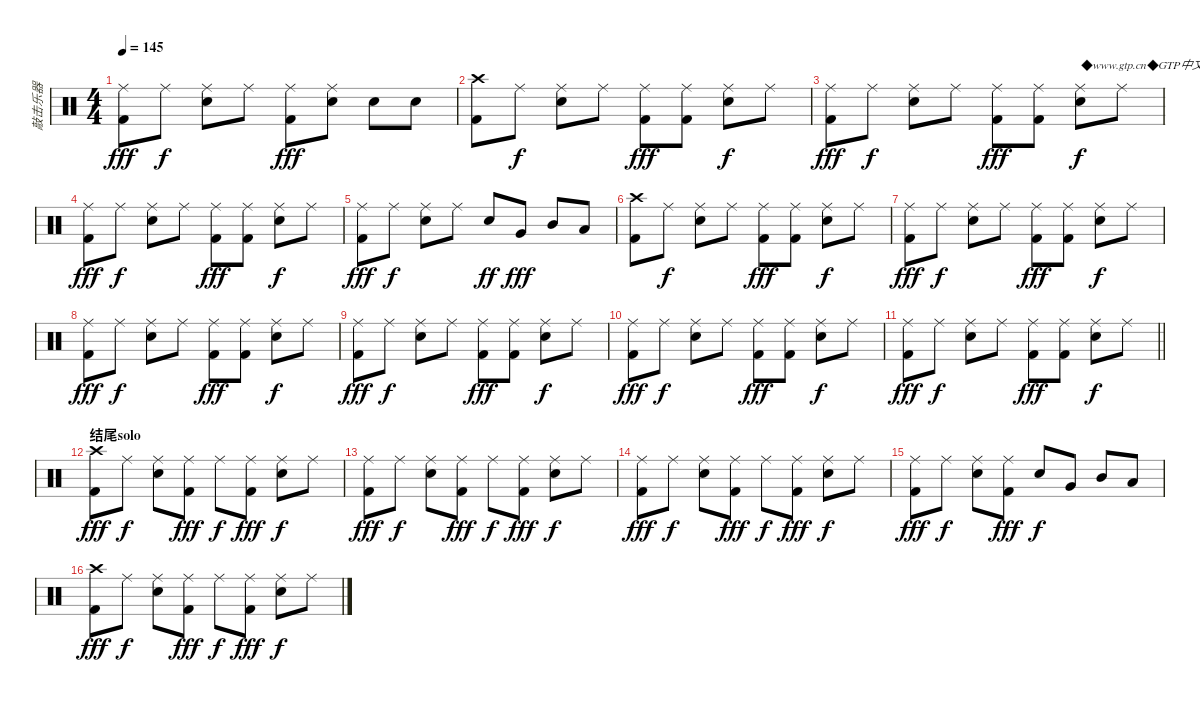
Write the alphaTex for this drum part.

\track ("敲击乐器" "敲击乐器") {instrument percussion}
\staff {score}
\articulation defaults
\ts (4 4)
\tempo 145
\clef neutral
\ks c
("Ride (middle)" "Kick (hit) 2").8{dy fff} "Ride (middle)".8{dy f} ("Ride (middle)" "Electric Snare (hit)").8 "Ride (middle)".8 ("Ride (middle)" "Kick (hit) 2").8{dy fff} ("Ride (middle)" "Electric Snare (hit)").8 "Electric Snare (hit)".8 "Electric Snare (hit)".8 |
("Crash high (hit)" "Kick (hit) 2").8 "Ride (middle)".8{dy f} ("Ride (middle)" "Electric Snare (hit)").8 "Ride (middle)".8 ("Ride (middle)" "Kick (hit) 2").8{dy fff} ("Ride (middle)" "Kick (hit) 2").8 ("Ride (middle)" "Electric Snare (hit)").8{dy f} "Ride (middle)".8 |
("Ride (middle)" "Kick (hit) 2").8{dy fff} "Ride (middle)".8{dy f} ("Ride (middle)" "Electric Snare (hit)").8 "Ride (middle)".8 ("Ride (middle)" "Kick (hit) 2").8{dy fff} ("Ride (middle)" "Kick (hit) 2").8 ("Ride (middle)" "Electric Snare (hit)").8{txt "◆www.gtp.cn◆GTP中文网为您提供优秀的GTP！" dy f} "Ride (middle)".8 |
("Ride (middle)" "Kick (hit) 2").8{dy fff} "Ride (middle)".8{dy f} ("Ride (middle)" "Electric Snare (hit)").8 "Ride (middle)".8 ("Ride (middle)" "Kick (hit) 2").8{dy fff} ("Ride (middle)" "Kick (hit) 2").8 ("Ride (middle)" "Electric Snare (hit)").8{dy f} "Ride (middle)".8 |
("Ride (middle)" "Kick (hit) 2").8{dy fff} "Ride (middle)".8{dy f} ("Ride (middle)" "Electric Snare (hit)").8 "Ride (middle)".8 "Electric Snare (hit)".8{dy ff} "Very Low Tom (hit)".8{dy fff} "Mid Tom (hit)".8 "Low Tom (hit)".8 |
("Crash high (hit)" "Kick (hit) 2").8 "Ride (middle)".8{dy f} ("Ride (middle)" "Electric Snare (hit)").8 "Ride (middle)".8 ("Ride (middle)" "Kick (hit) 2").8{dy fff} ("Ride (middle)" "Kick (hit) 2").8 ("Ride (middle)" "Electric Snare (hit)").8{dy f} "Ride (middle)".8 |
("Ride (middle)" "Kick (hit) 2").8{dy fff} "Ride (middle)".8{dy f} ("Ride (middle)" "Electric Snare (hit)").8 "Ride (middle)".8 ("Ride (middle)" "Kick (hit) 2").8{dy fff} ("Ride (middle)" "Kick (hit) 2").8 ("Ride (middle)" "Electric Snare (hit)").8{dy f} "Ride (middle)".8 |
("Ride (middle)" "Kick (hit) 2").8{dy fff} "Ride (middle)".8{dy f} ("Ride (middle)" "Electric Snare (hit)").8 "Ride (middle)".8 ("Ride (middle)" "Kick (hit) 2").8{dy fff} ("Ride (middle)" "Kick (hit) 2").8 ("Ride (middle)" "Electric Snare (hit)").8{dy f} "Ride (middle)".8 |
("Ride (middle)" "Kick (hit) 2").8{dy fff} "Ride (middle)".8{dy f} ("Ride (middle)" "Electric Snare (hit)").8 "Ride (middle)".8 ("Ride (middle)" "Kick (hit) 2").8{dy fff} ("Ride (middle)" "Kick (hit) 2").8 ("Ride (middle)" "Electric Snare (hit)").8{dy f} "Ride (middle)".8 |
("Ride (middle)" "Kick (hit) 2").8{dy fff} "Ride (middle)".8{dy f} ("Ride (middle)" "Electric Snare (hit)").8 "Ride (middle)".8 ("Ride (middle)" "Kick (hit) 2").8{dy fff} ("Ride (middle)" "Kick (hit) 2").8 ("Ride (middle)" "Electric Snare (hit)").8{dy f} "Ride (middle)".8 |
\barLineRight lightlight
("Ride (middle)" "Kick (hit) 2").8{dy fff} "Ride (middle)".8{dy f} ("Ride (middle)" "Electric Snare (hit)").8 "Ride (middle)".8 ("Ride (middle)" "Kick (hit) 2").8{dy fff} ("Ride (middle)" "Kick (hit) 2").8 ("Ride (middle)" "Electric Snare (hit)").8{dy f} "Ride (middle)".8 |
\section ("" "结尾solo")
("Crash high (hit)" "Kick (hit) 2").8{dy fff} "Ride (middle)".8{dy f} ("Ride (middle)" "Electric Snare (hit)").8 ("Ride (middle)" "Kick (hit) 2").8{dy fff} "Ride (middle)".8{dy f} ("Ride (middle)" "Kick (hit) 2").8{dy fff} ("Ride (middle)" "Electric Snare (hit)").8{dy f} "Ride (middle)".8 |
("Ride (middle)" "Kick (hit) 2").8{dy fff} "Ride (middle)".8{dy f} ("Ride (middle)" "Electric Snare (hit)").8 ("Ride (middle)" "Kick (hit) 2").8{dy fff} "Ride (middle)".8{dy f} ("Ride (middle)" "Kick (hit) 2").8{dy fff} ("Ride (middle)" "Electric Snare (hit)").8{dy f} "Ride (middle)".8 |
("Ride (middle)" "Kick (hit) 2").8{dy fff} "Ride (middle)".8{dy f} ("Ride (middle)" "Electric Snare (hit)").8 ("Ride (middle)" "Kick (hit) 2").8{dy fff} "Ride (middle)".8{dy f} ("Ride (middle)" "Kick (hit) 2").8{dy fff} ("Ride (middle)" "Electric Snare (hit)").8{dy f} "Ride (middle)".8 |
("Ride (middle)" "Kick (hit) 2").8{dy fff} "Ride (middle)".8{dy f} ("Ride (middle)" "Electric Snare (hit)").8 ("Ride (middle)" "Kick (hit) 2").8{dy fff} "Electric Snare (hit)".8{dy f} "Very Low Tom (hit)".8 "Mid Tom (hit)".8 "Low Tom (hit)".8 |
("Crash high (hit)" "Kick (hit) 2").8{dy fff} "Ride (middle)".8{dy f} ("Ride (middle)" "Electric Snare (hit)").8 ("Ride (middle)" "Kick (hit) 2").8{dy fff} "Ride (middle)".8{dy f} ("Ride (middle)" "Kick (hit) 2").8{dy fff} ("Ride (middle)" "Electric Snare (hit)").8{dy f} "Ride (middle)".8
